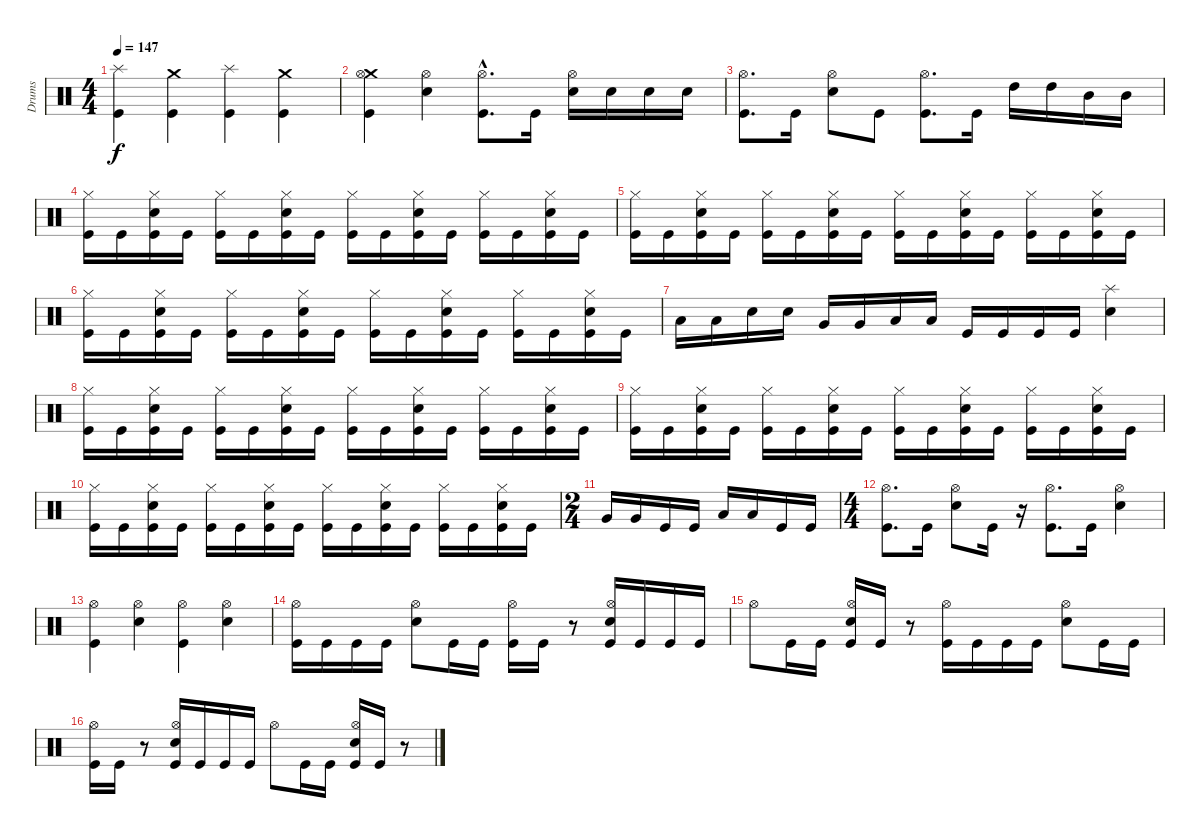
\track ("Drums" "Drums") {instrument percussion}
\staff {score}
\articulation defaults
\ts (4 4)
\tempo 147
\clef neutral
\ks c
("Splash (hit)" "Kick (hit)").4{dy f} ("Crash medium (hit)" "Kick (hit)").4 ("Splash (hit)" "Kick (hit)").4 ("Crash medium (hit)" "Kick (hit)").4 |
("Crash medium (hit)" "Kick (hit)" "Hi-Hat (open)").4 ("Hi-Hat (open)" "Snare (hit) 2").4 ("Kick (hit)"{hac} "Hi-Hat (open)").8{d} "Kick (hit)".16 ("Snare (hit) 2" "Hi-Hat (open)").16 "Snare (hit) 2".16 "Snare (hit) 2".16 "Snare (hit) 2".16 |
("Hi-Hat (open)" "Kick (hit)").8{d} "Kick (hit)".16 ("Hi-Hat (open)" "Snare (hit) 2").8 "Kick (hit)".8 ("Hi-Hat (open)" "Kick (hit)").8{d} "Kick (hit)".16 "High Tom (hit)".16 "High Tom (hit)".16 "Mid Tom (hit)".16 "Mid Tom (hit)".16 |
("Hi-Hat (closed)" "Kick (hit)").16 "Kick (hit)".16 ("Snare (hit) 2" "Kick (hit)" "Hi-Hat (closed)").16 "Kick (hit)".16 ("Hi-Hat (closed)" "Kick (hit)").16 "Kick (hit)".16 ("Hi-Hat (closed)" "Snare (hit) 2" "Kick (hit)").16 "Kick (hit)".16 ("Hi-Hat (closed)" "Kick (hit)").16 "Kick (hit)".16 ("Kick (hit)" "Hi-Hat (closed)" "Snare (hit) 2").16 "Kick (hit)".16 ("Hi-Hat (closed)" "Kick (hit)").16 "Kick (hit)".16 ("Snare (hit) 2" "Kick (hit)" "Hi-Hat (closed)").16 "Kick (hit)".16 |
("Hi-Hat (closed)" "Kick (hit)").16 "Kick (hit)".16 ("Kick (hit)" "Snare (hit) 2" "Hi-Hat (closed)").16 "Kick (hit)".16 ("Kick (hit)" "Hi-Hat (closed)").16 "Kick (hit)".16 ("Kick (hit)" "Hi-Hat (closed)" "Snare (hit) 2").16 "Kick (hit)".16 ("Hi-Hat (closed)" "Kick (hit)").16 "Kick (hit)".16 ("Hi-Hat (closed)" "Kick (hit)" "Snare (hit) 2").16 "Kick (hit)".16 ("Kick (hit)" "Hi-Hat (closed)").16 "Kick (hit)".16 ("Snare (hit) 2" "Kick (hit)" "Hi-Hat (closed)").16 "Kick (hit)".16 |
("Kick (hit)" "Hi-Hat (closed)").16 "Kick (hit)".16 ("Kick (hit)" "Hi-Hat (closed)" "Snare (hit) 2").16 "Kick (hit)".16 ("Kick (hit)" "Hi-Hat (closed)").16 "Kick (hit)".16 ("Hi-Hat (closed)" "Kick (hit)" "Snare (hit) 2").16 "Kick (hit)".16 ("Hi-Hat (closed)" "Kick (hit)").16 "Kick (hit)".16 ("Hi-Hat (closed)" "Snare (hit) 2" "Kick (hit)").16 "Kick (hit)".16 ("Hi-Hat (closed)" "Kick (hit)").16 "Kick (hit)".16 ("Kick (hit)" "Snare (hit) 2" "Hi-Hat (closed)").16 "Kick (hit)".16 |
"Low Floor Tom (hit)".16 "Low Floor Tom (hit)".16 "Snare (hit) 2".16 "Snare (hit) 2".16 "Very Low Tom (hit)".16 "Very Low Tom (hit)".16 "Low Floor Tom (hit)".16 "Low Floor Tom (hit)".16 "Kick (hit)".16 "Kick (hit)".16 "Kick (hit)".16 "Kick (hit)".16 ("Snare (hit) 2" "Splash (hit)").4 |
("Kick (hit)" "Hi-Hat (closed)").16 "Kick (hit)".16 ("Hi-Hat (closed)" "Snare (hit) 2" "Kick (hit)").16 "Kick (hit)".16 ("Kick (hit)" "Hi-Hat (closed)").16 "Kick (hit)".16 ("Hi-Hat (closed)" "Snare (hit) 2" "Kick (hit)").16 "Kick (hit)".16 ("Kick (hit)" "Hi-Hat (closed)").16 "Kick (hit)".16 ("Kick (hit)" "Hi-Hat (closed)" "Snare (hit) 2").16 "Kick (hit)".16 ("Kick (hit)" "Hi-Hat (closed)").16 "Kick (hit)".16 ("Snare (hit) 2" "Kick (hit)" "Hi-Hat (closed)").16 "Kick (hit)".16 |
("Kick (hit)" "Hi-Hat (closed)").16 "Kick (hit)".16 ("Hi-Hat (closed)" "Snare (hit) 2" "Kick (hit)").16 "Kick (hit)".16 ("Kick (hit)" "Hi-Hat (closed)").16 "Kick (hit)".16 ("Kick (hit)" "Snare (hit) 2" "Hi-Hat (closed)").16 "Kick (hit)".16 ("Hi-Hat (closed)" "Kick (hit)").16 "Kick (hit)".16 ("Kick (hit)" "Snare (hit) 2" "Hi-Hat (closed)").16 "Kick (hit)".16 ("Hi-Hat (closed)" "Kick (hit)").16 "Kick (hit)".16 ("Hi-Hat (closed)" "Snare (hit) 2" "Kick (hit)").16 "Kick (hit)".16 |
("Kick (hit)" "Hi-Hat (closed)").16 "Kick (hit)".16 ("Snare (hit) 2" "Kick (hit)" "Hi-Hat (closed)").16 "Kick (hit)".16 ("Hi-Hat (closed)" "Kick (hit)").16 "Kick (hit)".16 ("Hi-Hat (closed)" "Snare (hit) 2" "Kick (hit)").16 "Kick (hit)".16 ("Kick (hit)" "Hi-Hat (closed)").16 "Kick (hit)".16 ("Hi-Hat (closed)" "Kick (hit)" "Snare (hit) 2").16 "Kick (hit)".16 ("Hi-Hat (closed)" "Kick (hit)").16 "Kick (hit)".16 ("Snare (hit) 2" "Hi-Hat (closed)" "Kick (hit)").16 "Kick (hit)".16 |
\ts (2 4)
"Very Low Tom (hit)".16 "Very Low Tom (hit)".16 "Kick (hit)".16 "Kick (hit)".16 "Low Floor Tom (hit)".16 "Low Floor Tom (hit)".16 "Kick (hit)".16 "Kick (hit)".16 |
\ts (4 4)
("Kick (hit)" "Hi-Hat (open)").8{d} "Kick (hit)".16 ("Hi-Hat (open)" "Snare (hit) 2").8 "Kick (hit)".16 r.16 ("Hi-Hat (open)" "Kick (hit)").8{d} "Kick (hit)".16 ("Hi-Hat (open)" "Snare (hit) 2").4 |
("Hi-Hat (open)" "Kick (hit)").4 ("Snare (hit) 2" "Hi-Hat (open)").4 ("Hi-Hat (open)" "Kick (hit)").4 ("Snare (hit) 2" "Hi-Hat (open)").4 |
("Hi-Hat (open)" "Kick (hit)").16 "Kick (hit)".16 "Kick (hit)".16 "Kick (hit)".16 ("Snare (hit) 2" "Hi-Hat (open)").8 "Kick (hit)".16 "Kick (hit)".16 ("Hi-Hat (open)" "Kick (hit)").16 "Kick (hit)".16 r.8 ("Hi-Hat (open)" "Kick (hit)" "Snare (hit) 2").16 "Kick (hit)".16 "Kick (hit)".16 "Kick (hit)".16 |
"Hi-Hat (open)".8 "Kick (hit)".16 "Kick (hit)".16 ("Hi-Hat (open)" "Snare (hit) 2" "Kick (hit)").16 "Kick (hit)".16 r.8 ("Hi-Hat (open)" "Kick (hit)").16 "Kick (hit)".16 "Kick (hit)".16 "Kick (hit)".16 ("Snare (hit) 2" "Hi-Hat (open)").8 "Kick (hit)".16 "Kick (hit)".16 |
("Hi-Hat (open)" "Kick (hit)").16 "Kick (hit)".16 r.8 ("Kick (hit)" "Hi-Hat (open)" "Snare (hit) 2").16 "Kick (hit)".16 "Kick (hit)".16 "Kick (hit)".16 "Hi-Hat (open)".8 "Kick (hit)".16 "Kick (hit)".16 ("Kick (hit)" "Snare (hit) 2" "Hi-Hat (open)").16 "Kick (hit)".16 r.8
